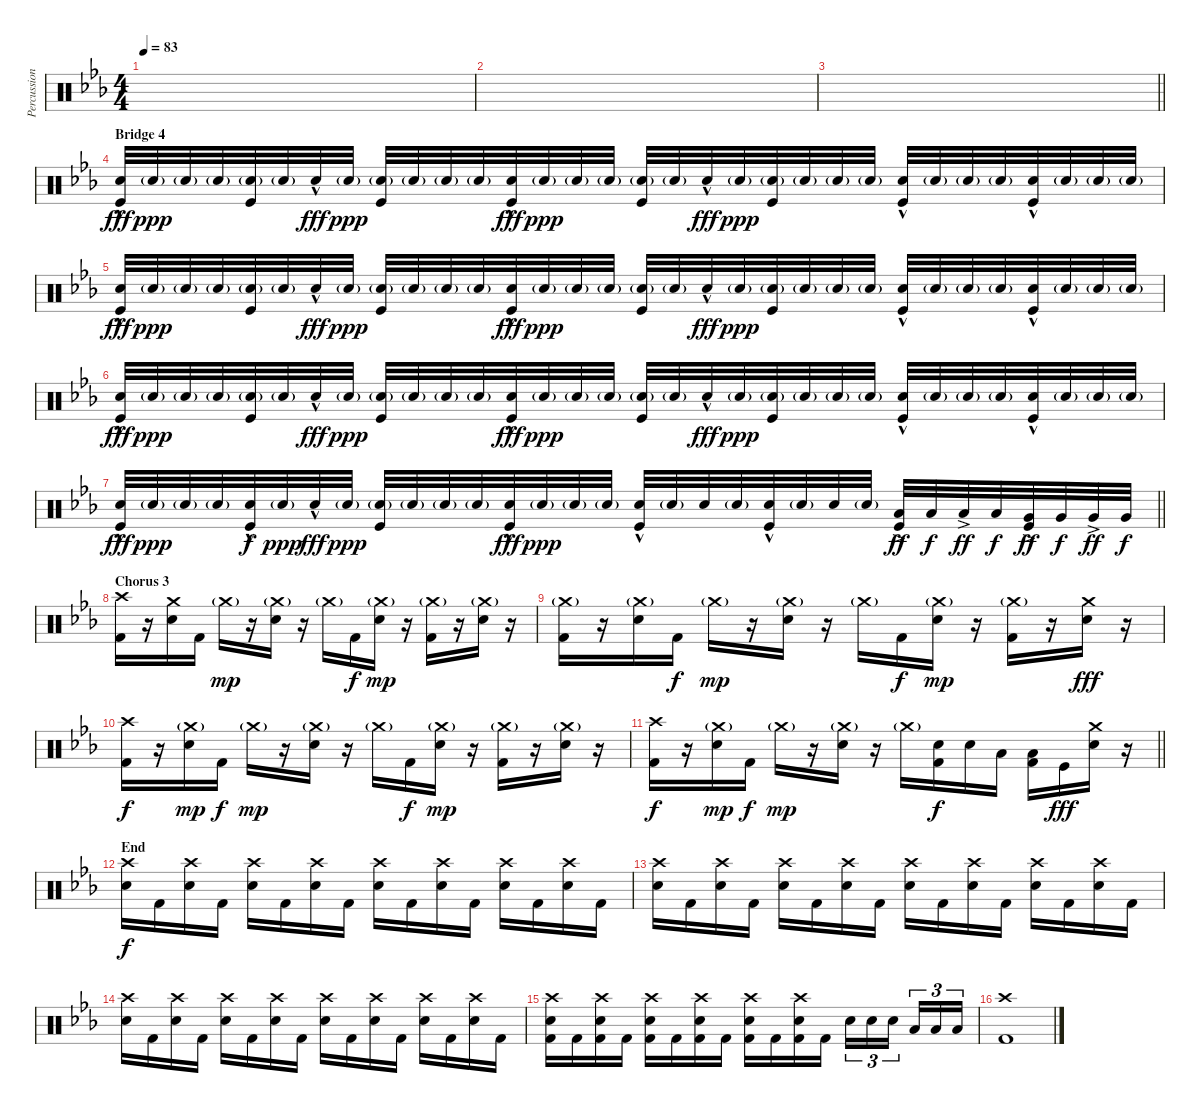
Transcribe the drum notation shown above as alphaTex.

\track ("Percussion" "Percussion") {instrument percussion}
\staff {score}
\articulation defaults
\ts (4 4)
\tempo 83
\clef neutral
\ks cminor
|
|
\barLineRight lightlight
|
\section ("" "Bridge 4")
("Snare (hit) 2"{hac} "Kick (hit)").32{dy fff} "Snare (hit) 2"{g}.32{dy ppp} "Snare (hit) 2"{g}.32 "Snare (hit) 2"{g}.32 ("Snare (hit) 2"{g} "Kick (hit)").32 "Snare (hit) 2"{g}.32 "Snare (hit) 2"{hac}.32{dy fff} "Snare (hit) 2"{g}.32{dy ppp} ("Snare (hit) 2"{g} "Kick (hit)").32 "Snare (hit) 2"{g}.32 "Snare (hit) 2"{g}.32 "Snare (hit) 2"{g}.32 ("Snare (hit) 2"{hac} "Kick (hit)").32{dy fff} "Snare (hit) 2"{g}.32{dy ppp} "Snare (hit) 2"{g}.32 "Snare (hit) 2"{g}.32 ("Snare (hit) 2"{g} "Kick (hit)").32 "Snare (hit) 2"{g}.32 "Snare (hit) 2"{hac}.32{dy fff} "Snare (hit) 2"{g}.32{dy ppp} ("Snare (hit) 2"{g} "Kick (hit)").32 "Snare (hit) 2"{g}.32 "Snare (hit) 2"{g}.32 "Snare (hit) 2"{g}.32 ("Snare (hit) 2"{hac} "Kick (hit)").32 "Snare (hit) 2"{g}.32 "Snare (hit) 2"{g}.32 "Snare (hit) 2"{g}.32 ("Snare (hit) 2"{hac} "Kick (hit)").32 "Snare (hit) 2"{g}.32 "Snare (hit) 2"{g}.32 "Snare (hit) 2"{g}.32 |
("Snare (hit) 2"{hac} "Kick (hit)").32{dy fff} "Snare (hit) 2"{g}.32{dy ppp} "Snare (hit) 2"{g}.32 "Snare (hit) 2"{g}.32 ("Snare (hit) 2"{g} "Kick (hit)").32 "Snare (hit) 2"{g}.32 "Snare (hit) 2"{hac}.32{dy fff} "Snare (hit) 2"{g}.32{dy ppp} ("Snare (hit) 2"{g} "Kick (hit)").32 "Snare (hit) 2"{g}.32 "Snare (hit) 2"{g}.32 "Snare (hit) 2"{g}.32 ("Snare (hit) 2"{hac} "Kick (hit)").32{dy fff} "Snare (hit) 2"{g}.32{dy ppp} "Snare (hit) 2"{g}.32 "Snare (hit) 2"{g}.32 ("Snare (hit) 2"{g} "Kick (hit)").32 "Snare (hit) 2"{g}.32 "Snare (hit) 2"{hac}.32{dy fff} "Snare (hit) 2"{g}.32{dy ppp} ("Snare (hit) 2"{g} "Kick (hit)").32 "Snare (hit) 2"{g}.32 "Snare (hit) 2"{g}.32 "Snare (hit) 2"{g}.32 ("Snare (hit) 2"{hac} "Kick (hit)").32 "Snare (hit) 2"{g}.32 "Snare (hit) 2"{g}.32 "Snare (hit) 2"{g}.32 ("Snare (hit) 2"{hac} "Kick (hit)").32 "Snare (hit) 2"{g}.32 "Snare (hit) 2"{g}.32 "Snare (hit) 2"{g}.32 |
("Snare (hit) 2"{hac} "Kick (hit)").32{dy fff} "Snare (hit) 2"{g}.32{dy ppp} "Snare (hit) 2"{g}.32 "Snare (hit) 2"{g}.32 ("Snare (hit) 2"{g} "Kick (hit)").32 "Snare (hit) 2"{g}.32 "Snare (hit) 2"{hac}.32{dy fff} "Snare (hit) 2"{g}.32{dy ppp} ("Snare (hit) 2"{g} "Kick (hit)").32 "Snare (hit) 2"{g}.32 "Snare (hit) 2"{g}.32 "Snare (hit) 2"{g}.32 ("Snare (hit) 2"{hac} "Kick (hit)").32{dy fff} "Snare (hit) 2"{g}.32{dy ppp} "Snare (hit) 2"{g}.32 "Snare (hit) 2"{g}.32 ("Snare (hit) 2"{g} "Kick (hit)").32 "Snare (hit) 2"{g}.32 "Snare (hit) 2"{hac}.32{dy fff} "Snare (hit) 2"{g}.32{dy ppp} ("Snare (hit) 2"{g} "Kick (hit)").32 "Snare (hit) 2"{g}.32 "Snare (hit) 2"{g}.32 "Snare (hit) 2"{g}.32 ("Snare (hit) 2"{hac} "Kick (hit)").32 "Snare (hit) 2"{g}.32 "Snare (hit) 2"{g}.32 "Snare (hit) 2"{g}.32 ("Snare (hit) 2"{hac} "Kick (hit)").32 "Snare (hit) 2"{g}.32 "Snare (hit) 2"{g}.32 "Snare (hit) 2"{g}.32 |
\barLineRight lightlight
("Snare (hit) 2"{hac} "Kick (hit)").32{dy fff} "Snare (hit) 2"{g}.32{dy ppp} "Snare (hit) 2"{g}.32 "Snare (hit) 2"{g}.32 ("Snare (hit) 2"{hac} "Kick (hit)").32{dy f} "Snare (hit) 2"{g}.32{dy ppp} "Snare (hit) 2"{hac}.32{dy fff} "Snare (hit) 2"{g}.32{dy ppp} ("Snare (hit) 2"{g} "Kick (hit)").32 "Snare (hit) 2"{g}.32 "Snare (hit) 2"{g}.32 "Snare (hit) 2"{g}.32 ("Snare (hit) 2"{hac} "Kick (hit)").32{dy fff} "Snare (hit) 2"{g}.32{dy ppp} "Snare (hit) 2"{g}.32 "Snare (hit) 2"{g}.32 ("Snare (hit) 2"{hac} "Kick (hit)").32 "Snare (hit) 2"{g}.32 "Snare (hit) 2".32 "Snare (hit) 2"{g}.32 ("Snare (hit) 2"{hac} "Kick (hit)").32 "Snare (hit) 2"{g}.32 "Snare (hit) 2".32 "Snare (hit) 2"{g}.32 ("Low Tom (hit)"{ac} "Kick (hit)").32{dy ff} "Low Tom (hit)".32{dy f} "Low Tom (hit)"{ac}.32{dy ff} "Low Tom (hit)".32{dy f} ("Very Low Tom (hit)"{ac} "Kick (hit)").32{dy ff} "Very Low Tom (hit)".32{dy f} "Very Low Tom (hit)"{ac}.32{dy ff} "Very Low Tom (hit)".32{dy f} |
\section ("" "Chorus 3")
("Crash high (hit)" "Kick (hit) 2").16 r.16 ("Crash medium (hit)" "Electric Snare (hit)").16 "Kick (hit) 2".16 "Crash medium (hit)"{g}.16{dy mp} r.16 ("Crash medium (hit)"{g} "Electric Snare (hit)").16 r.16 "Crash medium (hit)"{g}.16 "Kick (hit) 2".16{dy f} ("Crash medium (hit)"{g} "Electric Snare (hit)").16{dy mp} r.16 ("Crash medium (hit)"{g} "Kick (hit) 2").16 r.16 ("Crash medium (hit)"{g} "Electric Snare (hit)").16 r.16 |
("Crash medium (hit)"{g} "Kick (hit) 2").16 r.16 ("Crash medium (hit)"{g} "Electric Snare (hit)").16 "Kick (hit) 2".16{dy f} "Crash medium (hit)"{g}.16{dy mp} r.16 ("Crash medium (hit)"{g} "Electric Snare (hit)").16 r.16 "Crash medium (hit)"{g}.16 "Kick (hit) 2".16{dy f} ("Crash medium (hit)"{g} "Electric Snare (hit)").16{dy mp} r.16 ("Crash medium (hit)"{g} "Kick (hit) 2").16 r.16 ("Crash medium (hit)" "Electric Snare (hit)").16{dy fff} r.16 |
("Crash high (hit)" "Kick (hit) 2").16{dy f} r.16 ("Crash medium (hit)"{g} "Electric Snare (hit)").16{dy mp} "Kick (hit) 2".16{dy f} "Crash medium (hit)"{g}.16{dy mp} r.16 ("Crash medium (hit)"{g} "Electric Snare (hit)").16 r.16 "Crash medium (hit)"{g}.16 "Kick (hit) 2".16{dy f} ("Crash medium (hit)"{g} "Electric Snare (hit)").16{dy mp} r.16 ("Crash medium (hit)"{g} "Kick (hit) 2").16 r.16 ("Crash medium (hit)"{g} "Electric Snare (hit)").16 r.16 |
\barLineRight lightlight
("Crash high (hit)" "Kick (hit) 2").16{dy f} r.16 ("Crash medium (hit)"{g} "Electric Snare (hit)").16{dy mp} "Kick (hit) 2".16{dy f} "Crash medium (hit)"{g}.16{dy mp} r.16 ("Crash medium (hit)"{g} "Electric Snare (hit)").16 r.16 "Crash medium (hit)"{g}.16 ("Electric Snare (hit)" "Kick (hit) 2").16{dy f} "Electric Snare (hit)".16 "Low Tom (hit)".16 ("Low Tom (hit)" "Kick (hit) 2").16 "Kick (hit)".16{dy fff} ("Crash medium (hit)" "Electric Snare (hit)").16 r.16 |
\section ("" "End")
("Crash high (hit)" "Electric Snare (hit)").16{dy f} "Kick (hit) 2".16 ("Crash high (hit)" "Electric Snare (hit)").16 "Kick (hit) 2".16 ("Crash high (hit)" "Electric Snare (hit)").16 "Kick (hit) 2".16 ("Crash high (hit)" "Electric Snare (hit)").16 "Kick (hit) 2".16 ("Crash high (hit)" "Electric Snare (hit)").16 "Kick (hit) 2".16 ("Crash high (hit)" "Electric Snare (hit)").16 "Kick (hit) 2".16 ("Crash high (hit)" "Electric Snare (hit)").16 "Kick (hit) 2".16 ("Crash high (hit)" "Electric Snare (hit)").16 "Kick (hit) 2".16 |
("Crash high (hit)" "Electric Snare (hit)").16 "Kick (hit) 2".16 ("Crash high (hit)" "Electric Snare (hit)").16 "Kick (hit) 2".16 ("Crash high (hit)" "Electric Snare (hit)").16 "Kick (hit) 2".16 ("Crash high (hit)" "Electric Snare (hit)").16 "Kick (hit) 2".16 ("Crash high (hit)" "Electric Snare (hit)").16 "Kick (hit) 2".16 ("Crash high (hit)" "Electric Snare (hit)").16 "Kick (hit) 2".16 ("Crash high (hit)" "Electric Snare (hit)").16 "Kick (hit) 2".16 ("Crash high (hit)" "Electric Snare (hit)").16 "Kick (hit) 2".16 |
("Crash high (hit)" "Electric Snare (hit)").16 "Kick (hit) 2".16 ("Crash high (hit)" "Electric Snare (hit)").16 "Kick (hit) 2".16 ("Crash high (hit)" "Electric Snare (hit)").16 "Kick (hit) 2".16 ("Crash high (hit)" "Electric Snare (hit)").16 "Kick (hit) 2".16 ("Crash high (hit)" "Electric Snare (hit)").16 "Kick (hit) 2".16 ("Crash high (hit)" "Electric Snare (hit)").16 "Kick (hit) 2".16 ("Crash high (hit)" "Electric Snare (hit)").16 "Kick (hit) 2".16 ("Crash high (hit)" "Electric Snare (hit)").16 "Kick (hit) 2".16 |
("Crash high (hit)" "Electric Snare (hit)" "Kick (hit) 2").16 "Kick (hit) 2".16 ("Crash high (hit)" "Electric Snare (hit)" "Kick (hit) 2").16 "Kick (hit) 2".16 ("Crash high (hit)" "Electric Snare (hit)" "Kick (hit) 2").16 "Kick (hit) 2".16 ("Crash high (hit)" "Electric Snare (hit)" "Kick (hit) 2").16 "Kick (hit) 2".16 ("Crash high (hit)" "Electric Snare (hit)" "Kick (hit) 2").16 "Kick (hit) 2".16 ("Crash high (hit)" "Electric Snare (hit)" "Kick (hit) 2").16 "Kick (hit) 2".16 "Electric Snare (hit)".16{tu (3 2)} "Electric Snare (hit)".16{tu (3 2)} "Electric Snare (hit)".16{tu (3 2) beam splitsecondary} "Low Tom (hit)".16{tu (3 2)} "Low Tom (hit)".16{tu (3 2)} "Low Tom (hit)".16{tu (3 2)} |
("Crash high (hit)" "Kick (hit) 2").1
